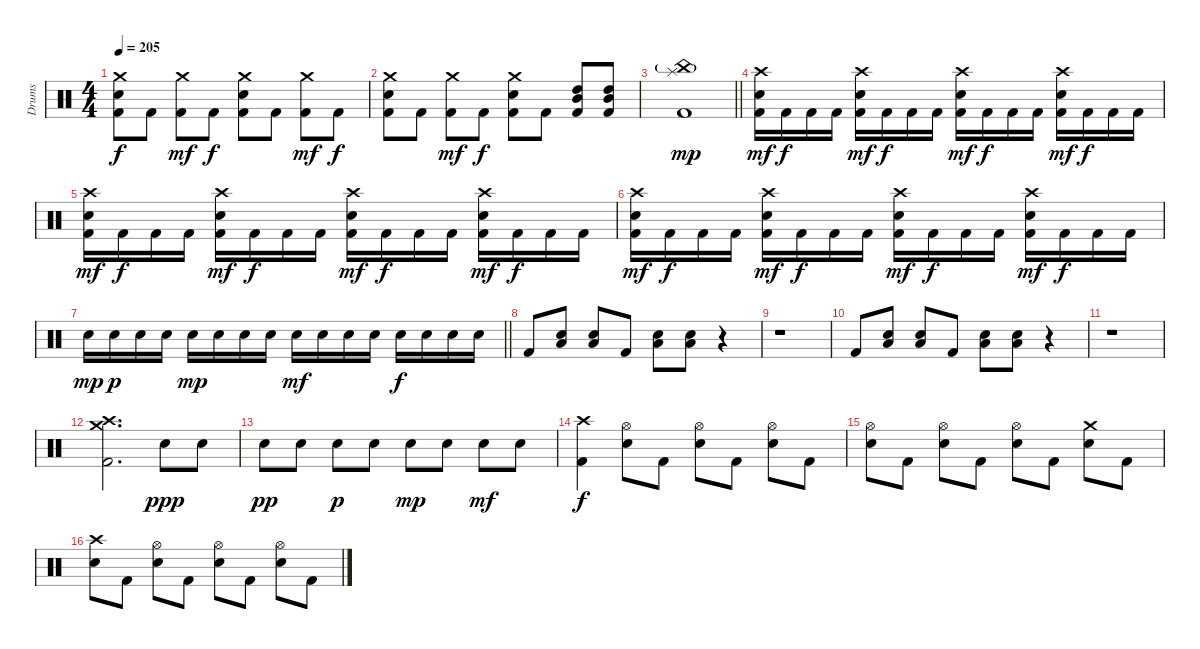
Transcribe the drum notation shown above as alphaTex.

\track ("Drums" "Drums") {instrument percussion}
\staff {score}
\articulation defaults
\ts (4 4)
\tempo 205
\clef neutral
\ks c
("Crash medium (hit)" "Electric Snare (hit)" "Kick (hit) 2").8{dy f} "Kick (hit) 2".8 ("Crash medium (hit)" "Kick (hit) 2").8{dy mf} "Kick (hit) 2".8{dy f} ("Crash medium (hit)" "Electric Snare (hit)" "Kick (hit) 2").8 "Kick (hit) 2".8 ("Crash medium (hit)" "Kick (hit) 2").8{dy mf} "Kick (hit) 2".8{dy f} |
("Crash medium (hit)" "Electric Snare (hit)" "Kick (hit) 2").8 "Kick (hit) 2".8 ("Crash medium (hit)" "Kick (hit) 2").8{dy mf} "Kick (hit) 2".8{dy f} ("Crash medium (hit)" "Electric Snare (hit)" "Kick (hit) 2").8 "Kick (hit) 2".8 ("High Tom (hit)" "Mid Tom (hit)" "Kick (hit) 2").8 ("High Tom (hit)" "Mid Tom (hit)" "Kick (hit) 2").8 |
\barLineRight lightlight
("China (hit)"{g} "Splash (hit)" "Kick (hit) 2").1{dy mp} |
("Crash high (hit)" "Electric Snare (hit)" "Kick (hit) 2").16{dy mf} "Kick (hit) 2".16{dy f} "Kick (hit) 2".16 "Kick (hit) 2".16 ("Crash high (hit)" "Electric Snare (hit)" "Kick (hit) 2").16{dy mf} "Kick (hit) 2".16{dy f} "Kick (hit) 2".16 "Kick (hit) 2".16 ("Crash high (hit)" "Electric Snare (hit)" "Kick (hit) 2").16{dy mf} "Kick (hit) 2".16{dy f} "Kick (hit) 2".16 "Kick (hit) 2".16 ("Crash high (hit)" "Electric Snare (hit)" "Kick (hit) 2").16{dy mf} "Kick (hit) 2".16{dy f} "Kick (hit) 2".16 "Kick (hit) 2".16 |
("Crash high (hit)" "Electric Snare (hit)" "Kick (hit) 2").16{dy mf} "Kick (hit) 2".16{dy f} "Kick (hit) 2".16 "Kick (hit) 2".16 ("Crash high (hit)" "Electric Snare (hit)" "Kick (hit) 2").16{dy mf} "Kick (hit) 2".16{dy f} "Kick (hit) 2".16 "Kick (hit) 2".16 ("Crash high (hit)" "Electric Snare (hit)" "Kick (hit) 2").16{dy mf} "Kick (hit) 2".16{dy f} "Kick (hit) 2".16 "Kick (hit) 2".16 ("Crash high (hit)" "Electric Snare (hit)" "Kick (hit) 2").16{dy mf} "Kick (hit) 2".16{dy f} "Kick (hit) 2".16 "Kick (hit) 2".16 |
("Crash high (hit)" "Electric Snare (hit)" "Kick (hit) 2").16{dy mf} "Kick (hit) 2".16{dy f} "Kick (hit) 2".16 "Kick (hit) 2".16 ("Crash high (hit)" "Electric Snare (hit)" "Kick (hit) 2").16{dy mf} "Kick (hit) 2".16{dy f} "Kick (hit) 2".16 "Kick (hit) 2".16 ("Crash high (hit)" "Electric Snare (hit)" "Kick (hit) 2").16{dy mf} "Kick (hit) 2".16{dy f} "Kick (hit) 2".16 "Kick (hit) 2".16 ("Crash high (hit)" "Electric Snare (hit)" "Kick (hit) 2").16{dy mf} "Kick (hit) 2".16{dy f} "Kick (hit) 2".16 "Kick (hit) 2".16 |
\barLineRight lightlight "Electric Snare (hit)".16{dy mp} "Electric Snare (hit)".16{dy p} "Electric Snare (hit)".16 "Electric Snare (hit)".16 "Electric Snare (hit)".16{dy mp} "Electric Snare (hit)".16 "Electric Snare (hit)".16 "Electric Snare (hit)".16 "Electric Snare (hit)".16{dy mf} "Electric Snare (hit)".16 "Electric Snare (hit)".16 "Electric Snare (hit)".16 "Electric Snare (hit)".16{dy f} "Electric Snare (hit)".16 "Electric Snare (hit)".16 "Electric Snare (hit)".16
|
"Kick (hit) 2".8 ("Low Tom (hit)" "Electric Snare (hit)").8 ("Low Tom (hit)" "Electric Snare (hit)").8 "Kick (hit) 2".8 ("Low Tom (hit)" "Electric Snare (hit)").8 ("Low Tom (hit)" "Electric Snare (hit)").8 r.4 |
r.1 |
"Kick (hit) 2".8 ("Low Tom (hit)" "Electric Snare (hit)").8 ("Low Tom (hit)" "Electric Snare (hit)").8 "Kick (hit) 2".8 ("Low Tom (hit)" "Electric Snare (hit)").8 ("Low Tom (hit)" "Electric Snare (hit)").8 r.4 |
r.1 |
("Crash high (hit)" "Crash medium (hit)" "Kick (hit) 2").2{d} "Electric Snare (hit)".8{dy ppp} "Electric Snare (hit)".8 |
"Electric Snare (hit)".8{dy pp} "Electric Snare (hit)".8 "Electric Snare (hit)".8{dy p} "Electric Snare (hit)".8 "Electric Snare (hit)".8{dy mp} "Electric Snare (hit)".8 "Electric Snare (hit)".8{dy mf} "Electric Snare (hit)".8 |
("Crash high (hit)" "Kick (hit) 2").4{dy f} ("Hi-Hat (open)" "Electric Snare (hit)").8 "Kick (hit) 2".8 ("Hi-Hat (open)" "Electric Snare (hit)").8 "Kick (hit) 2".8 ("Hi-Hat (open)" "Electric Snare (hit)").8 "Kick (hit) 2".8 |
("Hi-Hat (open)" "Electric Snare (hit)").8 "Kick (hit) 2".8 ("Hi-Hat (open)" "Electric Snare (hit)").8 "Kick (hit) 2".8 ("Hi-Hat (open)" "Electric Snare (hit)").8 "Kick (hit) 2".8 ("Crash medium (hit)" "Electric Snare (hit)").8 "Kick (hit) 2".8 |
("Crash high (hit)" "Electric Snare (hit)").8 "Kick (hit) 2".8 ("Hi-Hat (open)" "Electric Snare (hit)").8 "Kick (hit) 2".8 ("Hi-Hat (open)" "Electric Snare (hit)").8 "Kick (hit) 2".8 ("Hi-Hat (open)" "Electric Snare (hit)").8 "Kick (hit) 2".8
